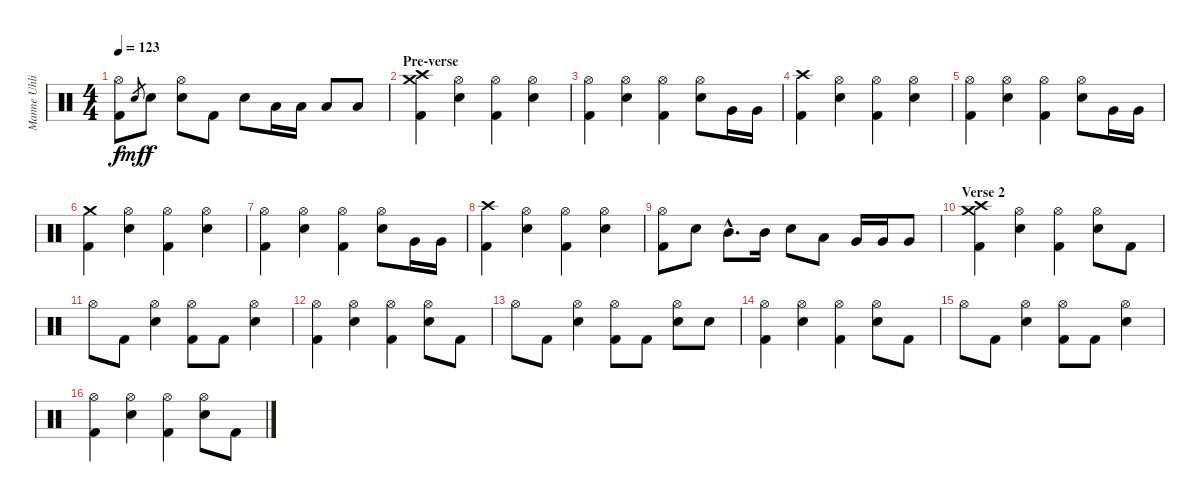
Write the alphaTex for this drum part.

\track ("Manne Uhlig" "Manne Uhli") {instrument percussion}
\staff {score}
\articulation defaults
\ts (4 4)
\tempo 123
\clef neutral
\ks c
("Hi-Hat (open)" "Kick (hit) 2").8{dy f} "Snare (hit) 2".8{gr dy mf} "Snare (hit) 2".8{dy f} ("Hi-Hat (open)" "Snare (hit) 2").8 "Kick (hit) 2".8 "Snare (hit) 2".8 "Low Tom (hit)".16 "Low Tom (hit)".16 "Low Tom (hit)".8 "Low Tom (hit)".8 |
\section ("" "Pre-verse")
("Crash high (hit)" "Crash medium (hit)" "Kick (hit) 2").4 ("Hi-Hat (open)" "Snare (hit) 2").4 ("Hi-Hat (open)" "Kick (hit) 2").4 ("Hi-Hat (open)" "Snare (hit) 2").4 |
("Hi-Hat (open)" "Kick (hit) 2").4 ("Hi-Hat (open)" "Snare (hit) 2").4 ("Hi-Hat (open)" "Kick (hit) 2").4 ("Hi-Hat (open)" "Snare (hit) 2").8 "Very Low Tom (hit)".16 "Very Low Tom (hit)".16 |
("Crash high (hit)" "Kick (hit) 2").4 ("Hi-Hat (open)" "Snare (hit) 2").4 ("Hi-Hat (open)" "Kick (hit) 2").4 ("Hi-Hat (open)" "Snare (hit) 2").4 |
("Hi-Hat (open)" "Kick (hit) 2").4 ("Hi-Hat (open)" "Snare (hit) 2").4 ("Hi-Hat (open)" "Kick (hit) 2").4 ("Hi-Hat (open)" "Snare (hit) 2").8 "Very Low Tom (hit)".16 "Very Low Tom (hit)".16 |
("Crash medium (hit)" "Kick (hit) 2").4 ("Hi-Hat (open)" "Snare (hit) 2").4 ("Hi-Hat (open)" "Kick (hit) 2").4 ("Hi-Hat (open)" "Snare (hit) 2").4 |
("Hi-Hat (open)" "Kick (hit) 2").4 ("Hi-Hat (open)" "Snare (hit) 2").4 ("Hi-Hat (open)" "Kick (hit) 2").4 ("Hi-Hat (open)" "Snare (hit) 2").8 "Very Low Tom (hit)".16 "Very Low Tom (hit)".16 |
("Crash high (hit)" "Kick (hit) 2").4 ("Hi-Hat (open)" "Snare (hit) 2").4 ("Hi-Hat (open)" "Kick (hit) 2").4 ("Hi-Hat (open)" "Snare (hit) 2").4 |
("Hi-Hat (open)" "Kick (hit) 2").8 "Snare (hit) 2".8 "Mid Tom (hit)"{hac}.8{d} "Mid Tom (hit)".16 "Snare (hit) 2".8 "Low Tom (hit)".8 "Very Low Tom (hit)".16 "Very Low Tom (hit)".16 "Very Low Tom (hit)".8 |
\section ("" "Verse 2")
("Crash high (hit)" "Crash medium (hit)" "Kick (hit) 2").4 ("Hi-Hat (open)" "Snare (hit) 2").4 ("Hi-Hat (open)" "Kick (hit) 2").4 ("Hi-Hat (open)" "Snare (hit) 2").8 "Kick (hit) 2".8 |
"Hi-Hat (open)".8 "Kick (hit) 2".8 ("Hi-Hat (open)" "Snare (hit) 2").4 ("Hi-Hat (open)" "Kick (hit) 2").8 "Kick (hit) 2".8 ("Hi-Hat (open)" "Snare (hit) 2").4 |
("Hi-Hat (open)" "Kick (hit) 2").4 ("Hi-Hat (open)" "Snare (hit) 2").4 ("Hi-Hat (open)" "Kick (hit) 2").4 ("Hi-Hat (open)" "Snare (hit) 2").8 "Kick (hit) 2".8 |
"Hi-Hat (open)".8 "Kick (hit) 2".8 ("Hi-Hat (open)" "Snare (hit) 2").4 ("Hi-Hat (open)" "Kick (hit) 2").8 "Kick (hit) 2".8 ("Hi-Hat (open)" "Snare (hit) 2").8 "Snare (hit) 2".8 |
("Hi-Hat (open)" "Kick (hit) 2").4 ("Hi-Hat (open)" "Snare (hit) 2").4 ("Hi-Hat (open)" "Kick (hit) 2").4 ("Hi-Hat (open)" "Snare (hit) 2").8 "Kick (hit) 2".8 |
"Hi-Hat (open)".8 "Kick (hit) 2".8 ("Hi-Hat (open)" "Snare (hit) 2").4 ("Hi-Hat (open)" "Kick (hit) 2").8 "Kick (hit) 2".8 ("Hi-Hat (open)" "Snare (hit) 2").4 |
("Hi-Hat (open)" "Kick (hit) 2").4 ("Hi-Hat (open)" "Snare (hit) 2").4 ("Hi-Hat (open)" "Kick (hit) 2").4 ("Hi-Hat (open)" "Snare (hit) 2").8 "Kick (hit) 2".8
